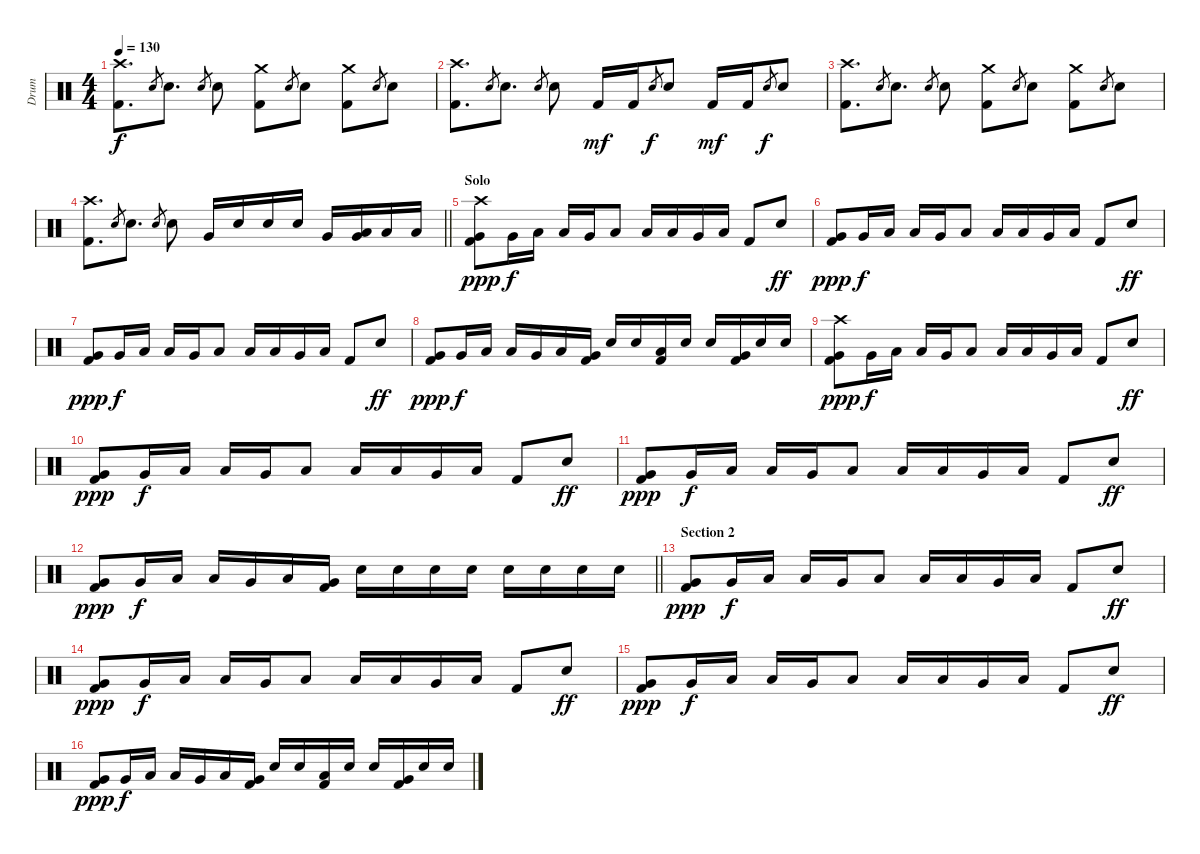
\track ("Drum" "Drum") {instrument percussion}
\staff {score}
\articulation defaults
\ts (4 4)
\tempo 130
\clef neutral
\ks c
("Crash high (hit)" "Kick (hit) 2").8{d dy f} "Electric Snare (hit)".8{gr} "Electric Snare (hit)".8{d} "Electric Snare (hit)".8{gr} "Electric Snare (hit)".8 ("Kick (hit) 2" "Crash medium (hit)").8 "Electric Snare (hit)".8{gr} "Electric Snare (hit)".8 ("Kick (hit) 2" "Crash medium (hit)").8 "Electric Snare (hit)".8{gr} "Electric Snare (hit)".8 |
("Crash high (hit)" "Kick (hit) 2").8{d} "Electric Snare (hit)".8{gr} "Electric Snare (hit)".8{d} "Electric Snare (hit)".8{gr} "Electric Snare (hit)".8 "Kick (hit) 2".16{dy mf} "Kick (hit) 2".16 "Electric Snare (hit)".8{gr dy f} "Electric Snare (hit)".8 "Kick (hit) 2".16{dy mf} "Kick (hit) 2".16 "Electric Snare (hit)".8{gr dy f} "Electric Snare (hit)".8 |
("Crash high (hit)" "Kick (hit) 2").8{d} "Electric Snare (hit)".8{gr} "Electric Snare (hit)".8{d} "Electric Snare (hit)".8{gr} "Electric Snare (hit)".8 ("Kick (hit) 2" "Crash medium (hit)").8 "Electric Snare (hit)".8{gr} "Electric Snare (hit)".8 ("Kick (hit) 2" "Crash medium (hit)").8 "Electric Snare (hit)".8{gr} "Electric Snare (hit)".8 |
\barLineRight lightlight
("Crash high (hit)" "Kick (hit) 2").8{d} "Electric Snare (hit)".8{gr} "Electric Snare (hit)".8{d} "Electric Snare (hit)".8{gr} "Electric Snare (hit)".8 "Very Low Tom (hit)".16 "Electric Snare (hit)".16 "Electric Snare (hit)".16 "Electric Snare (hit)".16 "Very Low Tom (hit)".16 ("Low Floor Tom (hit)" "Very Low Tom (hit)").16 "Low Floor Tom (hit)".16 "Low Floor Tom (hit)".16 |
\section ("" "Solo")
("Crash high (hit)" "Very Low Tom (hit)" "Kick (hit) 2").8{dy ppp} "Very Low Tom (hit)".16{dy f} "Low Tom (hit)".16 "Low Tom (hit)".16 "Very Low Tom (hit)".16 "Low Tom (hit)".8 "Low Floor Tom (hit)".16 "Low Tom (hit)".16 "Very Low Tom (hit)".16 "Low Floor Tom (hit)".16 "Kick (hit) 2".8 "Electric Snare (hit)".8{dy ff} |
("Very Low Tom (hit)" "Kick (hit) 2").8{dy ppp} "Very Low Tom (hit)".16{dy f} "Low Tom (hit)".16 "Low Tom (hit)".16 "Very Low Tom (hit)".16 "Low Tom (hit)".8 "Low Floor Tom (hit)".16 "Low Tom (hit)".16 "Very Low Tom (hit)".16 "Low Floor Tom (hit)".16 "Kick (hit) 2".8 "Electric Snare (hit)".8{dy ff} |
("Very Low Tom (hit)" "Kick (hit) 2").8{dy ppp} "Very Low Tom (hit)".16{dy f} "Low Tom (hit)".16 "Low Tom (hit)".16 "Very Low Tom (hit)".16 "Low Tom (hit)".8 "Low Floor Tom (hit)".16 "Low Tom (hit)".16 "Very Low Tom (hit)".16 "Low Floor Tom (hit)".16 "Kick (hit) 2".8 "Electric Snare (hit)".8{dy ff} |
("Very Low Tom (hit)" "Kick (hit) 2").8{dy ppp} "Very Low Tom (hit)".16{dy f} "Low Tom (hit)".16 "Low Tom (hit)".16 "Very Low Tom (hit)".16 "Low Tom (hit)".16 ("Kick (hit) 2" "Very Low Tom (hit)").16 "Electric Snare (hit)".16 "Electric Snare (hit)".16 ("Kick (hit) 2" "Low Floor Tom (hit)").16 "Electric Snare (hit)".16 "Electric Snare (hit)".16 ("Kick (hit) 2" "Very Low Tom (hit)").16 "Electric Snare (hit)".16 "Electric Snare (hit)".16 |
("Crash high (hit)" "Very Low Tom (hit)" "Kick (hit) 2").8{dy ppp} "Very Low Tom (hit)".16{dy f} "Low Tom (hit)".16 "Low Tom (hit)".16 "Very Low Tom (hit)".16 "Low Tom (hit)".8 "Low Floor Tom (hit)".16 "Low Tom (hit)".16 "Very Low Tom (hit)".16 "Low Floor Tom (hit)".16 "Kick (hit) 2".8 "Electric Snare (hit)".8{dy ff} |
("Very Low Tom (hit)" "Kick (hit) 2").8{dy ppp} "Very Low Tom (hit)".16{dy f} "Low Tom (hit)".16 "Low Tom (hit)".16 "Very Low Tom (hit)".16 "Low Tom (hit)".8 "Low Floor Tom (hit)".16 "Low Tom (hit)".16 "Very Low Tom (hit)".16 "Low Floor Tom (hit)".16 "Kick (hit) 2".8 "Electric Snare (hit)".8{dy ff} |
("Very Low Tom (hit)" "Kick (hit) 2").8{dy ppp} "Very Low Tom (hit)".16{dy f} "Low Tom (hit)".16 "Low Tom (hit)".16 "Very Low Tom (hit)".16 "Low Tom (hit)".8 "Low Floor Tom (hit)".16 "Low Tom (hit)".16 "Very Low Tom (hit)".16 "Low Floor Tom (hit)".16 "Kick (hit) 2".8 "Electric Snare (hit)".8{dy ff} |
\barLineRight lightlight
("Very Low Tom (hit)" "Kick (hit) 2").8{dy ppp} "Very Low Tom (hit)".16{dy f} "Low Tom (hit)".16 "Low Tom (hit)".16 "Very Low Tom (hit)".16 "Low Tom (hit)".16 ("Kick (hit) 2" "Very Low Tom (hit)").16 "Electric Snare (hit)".16 "Electric Snare (hit)".16 "Electric Snare (hit)".16 "Electric Snare (hit)".16 "Electric Snare (hit)".16 "Electric Snare (hit)".16 "Electric Snare (hit)".16 "Electric Snare (hit)".16 |
\section ("" "Section 2")
("Very Low Tom (hit)" "Kick (hit) 2").8{dy ppp} "Very Low Tom (hit)".16{dy f} "Low Tom (hit)".16 "Low Tom (hit)".16 "Very Low Tom (hit)".16 "Low Tom (hit)".8 "Low Floor Tom (hit)".16 "Low Tom (hit)".16 "Very Low Tom (hit)".16 "Low Floor Tom (hit)".16 "Kick (hit) 2".8 "Electric Snare (hit)".8{dy ff} |
("Very Low Tom (hit)" "Kick (hit) 2").8{dy ppp} "Very Low Tom (hit)".16{dy f} "Low Tom (hit)".16 "Low Tom (hit)".16 "Very Low Tom (hit)".16 "Low Tom (hit)".8 "Low Floor Tom (hit)".16 "Low Tom (hit)".16 "Very Low Tom (hit)".16 "Low Floor Tom (hit)".16 "Kick (hit) 2".8 "Electric Snare (hit)".8{dy ff} |
("Very Low Tom (hit)" "Kick (hit) 2").8{dy ppp} "Very Low Tom (hit)".16{dy f} "Low Tom (hit)".16 "Low Tom (hit)".16 "Very Low Tom (hit)".16 "Low Tom (hit)".8 "Low Floor Tom (hit)".16 "Low Tom (hit)".16 "Very Low Tom (hit)".16 "Low Floor Tom (hit)".16 "Kick (hit) 2".8 "Electric Snare (hit)".8{dy ff} |
("Very Low Tom (hit)" "Kick (hit) 2").8{dy ppp} "Very Low Tom (hit)".16{dy f} "Low Tom (hit)".16 "Low Tom (hit)".16 "Very Low Tom (hit)".16 "Low Tom (hit)".16 ("Kick (hit) 2" "Very Low Tom (hit)").16 "Electric Snare (hit)".16 "Electric Snare (hit)".16 ("Kick (hit) 2" "Low Floor Tom (hit)").16 "Electric Snare (hit)".16 "Electric Snare (hit)".16 ("Kick (hit) 2" "Very Low Tom (hit)").16 "Electric Snare (hit)".16 "Electric Snare (hit)".16
